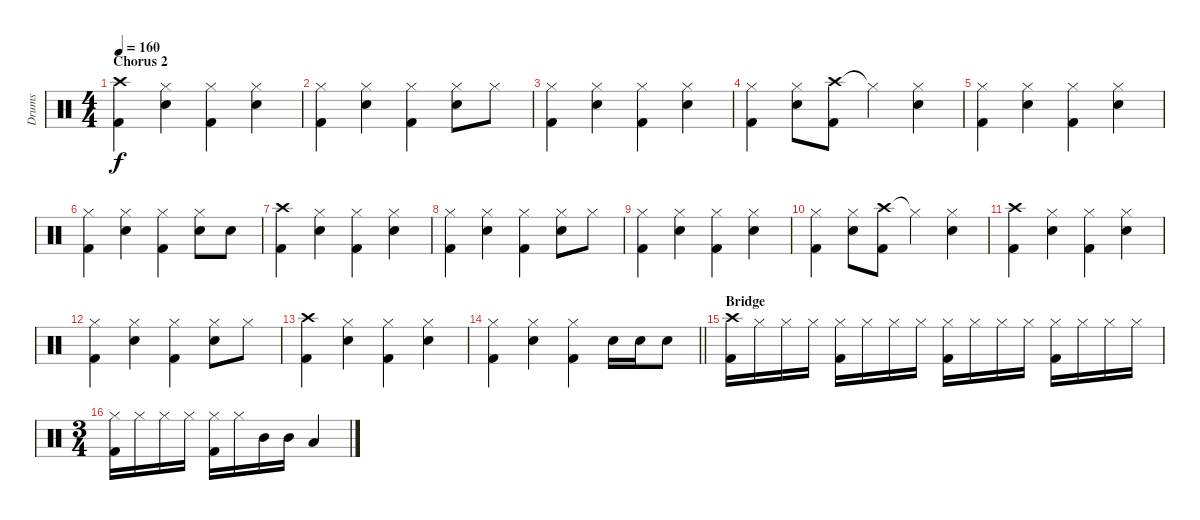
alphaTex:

\track ("Drums" "Drums") {instrument percussion}
\staff {score}
\articulation defaults
\ts (4 4)
\section ("" "Chorus 2")
\tempo 160
\clef neutral
\ks c
("Crash high (hit)" "Kick (hit) 2").4{dy f} ("Hi-Hat (closed)" "Snare (hit) 2").4 ("Hi-Hat (closed)" "Kick (hit) 2").4 ("Hi-Hat (closed)" "Snare (hit) 2").4 |
("Hi-Hat (closed)" "Kick (hit) 2").4 ("Hi-Hat (closed)" "Snare (hit) 2").4 ("Hi-Hat (closed)" "Kick (hit) 2").4 ("Hi-Hat (closed)" "Snare (hit) 2").8 "Hi-Hat (closed)".8 |
("Hi-Hat (closed)" "Kick (hit) 2").4 ("Hi-Hat (closed)" "Snare (hit) 2").4 ("Hi-Hat (closed)" "Kick (hit) 2").4 ("Hi-Hat (closed)" "Snare (hit) 2").4 |
("Hi-Hat (closed)" "Kick (hit) 2").4 ("Hi-Hat (closed)" "Snare (hit) 2").8 ("Crash high (hit)" "Kick (hit) 2").8 "Hi-Hat (closed)"{t}.4 ("Hi-Hat (closed)" "Snare (hit) 2").4 |
("Hi-Hat (closed)" "Kick (hit) 2").4 ("Hi-Hat (closed)" "Snare (hit) 2").4 ("Hi-Hat (closed)" "Kick (hit) 2").4 ("Hi-Hat (closed)" "Snare (hit) 2").4 |
("Hi-Hat (closed)" "Kick (hit) 2").4 ("Hi-Hat (closed)" "Snare (hit) 2").4 ("Hi-Hat (closed)" "Kick (hit) 2").4 ("Hi-Hat (closed)" "Snare (hit) 2").8 "Snare (hit) 2".8 |
("Crash high (hit)" "Kick (hit) 2").4 ("Hi-Hat (closed)" "Snare (hit) 2").4 ("Hi-Hat (closed)" "Kick (hit) 2").4 ("Hi-Hat (closed)" "Snare (hit) 2").4 |
("Hi-Hat (closed)" "Kick (hit) 2").4 ("Hi-Hat (closed)" "Snare (hit) 2").4 ("Hi-Hat (closed)" "Kick (hit) 2").4 ("Hi-Hat (closed)" "Snare (hit) 2").8 "Hi-Hat (closed)".8 |
("Hi-Hat (closed)" "Kick (hit) 2").4 ("Hi-Hat (closed)" "Snare (hit) 2").4 ("Hi-Hat (closed)" "Kick (hit) 2").4 ("Hi-Hat (closed)" "Snare (hit) 2").4 |
("Hi-Hat (closed)" "Kick (hit) 2").4 ("Hi-Hat (closed)" "Snare (hit) 2").8 ("Crash high (hit)" "Kick (hit) 2").8 "Hi-Hat (closed)"{t}.4 ("Hi-Hat (closed)" "Snare (hit) 2").4 |
("Crash high (hit)" "Kick (hit) 2").4 ("Hi-Hat (closed)" "Snare (hit) 2").4 ("Hi-Hat (closed)" "Kick (hit) 2").4 ("Hi-Hat (closed)" "Snare (hit) 2").4 |
("Hi-Hat (closed)" "Kick (hit) 2").4 ("Hi-Hat (closed)" "Snare (hit) 2").4 ("Hi-Hat (closed)" "Kick (hit) 2").4 ("Hi-Hat (closed)" "Snare (hit) 2").8 "Hi-Hat (closed)".8 |
("Crash high (hit)" "Kick (hit) 2").4 ("Hi-Hat (closed)" "Snare (hit) 2").4 ("Hi-Hat (closed)" "Kick (hit) 2").4 ("Hi-Hat (closed)" "Snare (hit) 2").4 |
\barLineRight lightlight
("Hi-Hat (closed)" "Kick (hit) 2").4 ("Hi-Hat (closed)" "Snare (hit) 2").4 ("Hi-Hat (closed)" "Kick (hit) 2").4 "Snare (hit) 2".16 "Snare (hit) 2".16 "Snare (hit) 2".8 |
\section ("" "Bridge")
("Crash high (hit)" "Kick (hit) 2").16 "Hi-Hat (closed)".16 "Hi-Hat (closed)".16 "Hi-Hat (closed)".16 ("Hi-Hat (closed)" "Kick (hit) 2").16 "Hi-Hat (closed)".16 "Hi-Hat (closed)".16 "Hi-Hat (closed)".16 ("Hi-Hat (closed)" "Kick (hit) 2").16 "Hi-Hat (closed)".16 "Hi-Hat (closed)".16 "Hi-Hat (closed)".16 ("Hi-Hat (closed)" "Kick (hit) 2").16 "Hi-Hat (closed)".16 "Hi-Hat (closed)".16 "Hi-Hat (closed)".16 |
\ts (3 4)
("Hi-Hat (closed)" "Kick (hit) 2").16 "Hi-Hat (closed)".16 "Hi-Hat (closed)".16 "Hi-Hat (closed)".16 ("Hi-Hat (closed)" "Kick (hit) 2").16 "Hi-Hat (closed)".16 "Mid Tom (hit)".16 "Mid Tom (hit)".16 "Low Tom (hit)".4
